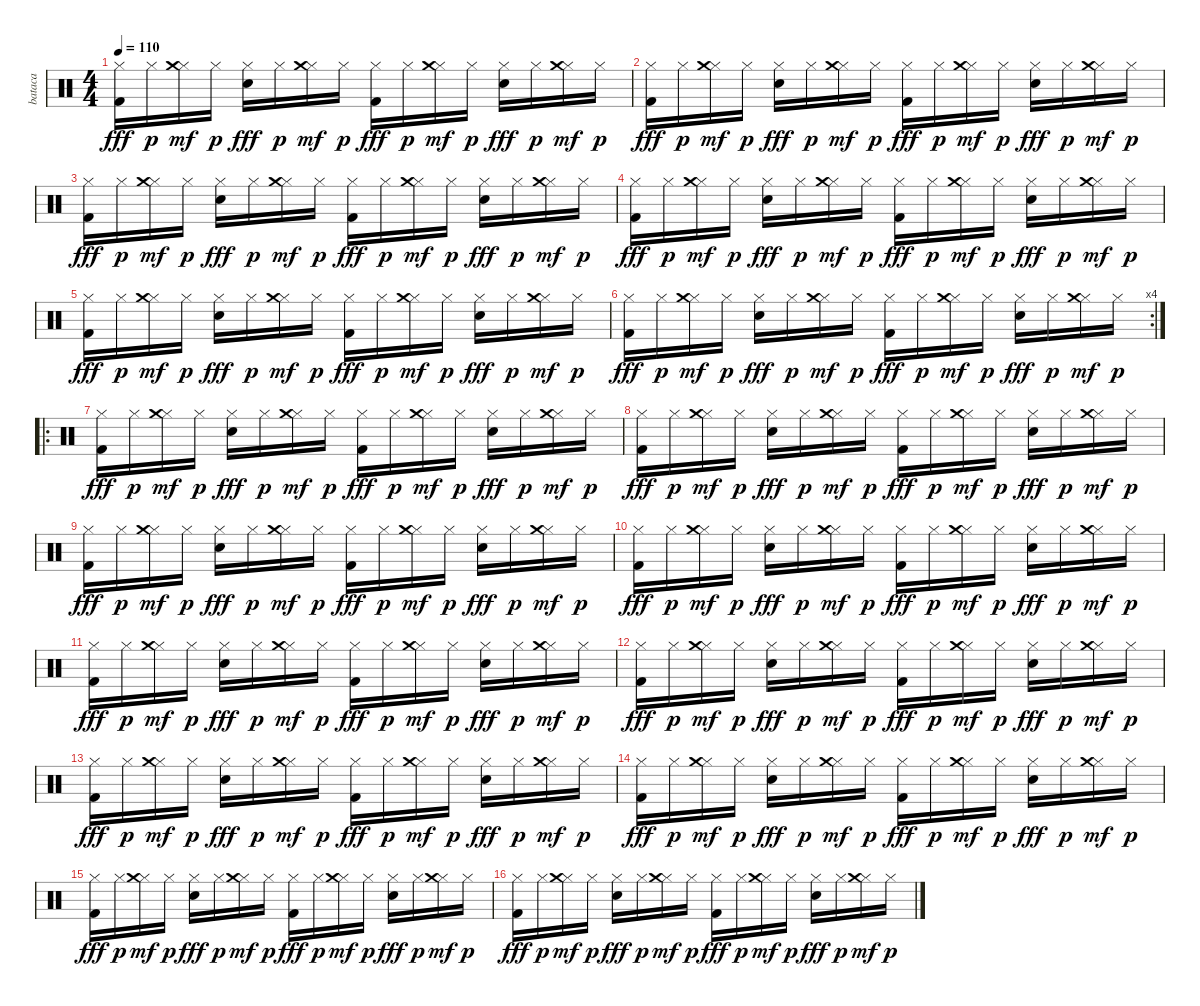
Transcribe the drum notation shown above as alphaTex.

\track ("bataca" "bataca") {instrument percussion}
\staff {score}
\articulation defaults
\ts (4 4)
\tempo 110
\clef neutral
\ks c
("Hi-Hat (closed)" "Kick (hit) 2").16{dy fff} "Hi-Hat (closed)".16{dy p} ("Hi-Hat (closed)" "Crash medium (hit)").16{dy mf} "Hi-Hat (closed)".16{dy p} ("Hi-Hat (closed)" "Electric Snare (hit)").16{dy fff} "Hi-Hat (closed)".16{dy p} ("Hi-Hat (closed)" "Crash medium (hit)").16{dy mf} "Hi-Hat (closed)".16{dy p} ("Hi-Hat (closed)" "Kick (hit) 2").16{dy fff} "Hi-Hat (closed)".16{dy p} ("Hi-Hat (closed)" "Crash medium (hit)").16{dy mf} "Hi-Hat (closed)".16{dy p} ("Hi-Hat (closed)" "Electric Snare (hit)").16{dy fff} "Hi-Hat (closed)".16{dy p} ("Hi-Hat (closed)" "Crash medium (hit)").16{dy mf} "Hi-Hat (closed)".16{dy p} |
("Hi-Hat (closed)" "Kick (hit) 2").16{dy fff} "Hi-Hat (closed)".16{dy p} ("Hi-Hat (closed)" "Crash medium (hit)").16{dy mf} "Hi-Hat (closed)".16{dy p} ("Hi-Hat (closed)" "Electric Snare (hit)").16{dy fff} "Hi-Hat (closed)".16{dy p} ("Hi-Hat (closed)" "Crash medium (hit)").16{dy mf} "Hi-Hat (closed)".16{dy p} ("Hi-Hat (closed)" "Kick (hit) 2").16{dy fff} "Hi-Hat (closed)".16{dy p} ("Hi-Hat (closed)" "Crash medium (hit)").16{dy mf} "Hi-Hat (closed)".16{dy p} ("Hi-Hat (closed)" "Electric Snare (hit)").16{dy fff} "Hi-Hat (closed)".16{dy p} ("Hi-Hat (closed)" "Crash medium (hit)").16{dy mf} "Hi-Hat (closed)".16{dy p} |
("Hi-Hat (closed)" "Kick (hit) 2").16{dy fff} "Hi-Hat (closed)".16{dy p} ("Hi-Hat (closed)" "Crash medium (hit)").16{dy mf} "Hi-Hat (closed)".16{dy p} ("Hi-Hat (closed)" "Electric Snare (hit)").16{dy fff} "Hi-Hat (closed)".16{dy p} ("Hi-Hat (closed)" "Crash medium (hit)").16{dy mf} "Hi-Hat (closed)".16{dy p} ("Hi-Hat (closed)" "Kick (hit) 2").16{dy fff} "Hi-Hat (closed)".16{dy p} ("Hi-Hat (closed)" "Crash medium (hit)").16{dy mf} "Hi-Hat (closed)".16{dy p} ("Hi-Hat (closed)" "Electric Snare (hit)").16{dy fff} "Hi-Hat (closed)".16{dy p} ("Hi-Hat (closed)" "Crash medium (hit)").16{dy mf} "Hi-Hat (closed)".16{dy p} |
("Hi-Hat (closed)" "Kick (hit) 2").16{dy fff} "Hi-Hat (closed)".16{dy p} ("Hi-Hat (closed)" "Crash medium (hit)").16{dy mf} "Hi-Hat (closed)".16{dy p} ("Hi-Hat (closed)" "Electric Snare (hit)").16{dy fff} "Hi-Hat (closed)".16{dy p} ("Hi-Hat (closed)" "Crash medium (hit)").16{dy mf} "Hi-Hat (closed)".16{dy p} ("Hi-Hat (closed)" "Kick (hit) 2").16{dy fff} "Hi-Hat (closed)".16{dy p} ("Hi-Hat (closed)" "Crash medium (hit)").16{dy mf} "Hi-Hat (closed)".16{dy p} ("Hi-Hat (closed)" "Electric Snare (hit)").16{dy fff} "Hi-Hat (closed)".16{dy p} ("Hi-Hat (closed)" "Crash medium (hit)").16{dy mf} "Hi-Hat (closed)".16{dy p} |
("Hi-Hat (closed)" "Kick (hit) 2").16{dy fff} "Hi-Hat (closed)".16{dy p} ("Hi-Hat (closed)" "Crash medium (hit)").16{dy mf} "Hi-Hat (closed)".16{dy p} ("Hi-Hat (closed)" "Electric Snare (hit)").16{dy fff} "Hi-Hat (closed)".16{dy p} ("Hi-Hat (closed)" "Crash medium (hit)").16{dy mf} "Hi-Hat (closed)".16{dy p} ("Hi-Hat (closed)" "Kick (hit) 2").16{dy fff} "Hi-Hat (closed)".16{dy p} ("Hi-Hat (closed)" "Crash medium (hit)").16{dy mf} "Hi-Hat (closed)".16{dy p} ("Hi-Hat (closed)" "Electric Snare (hit)").16{dy fff} "Hi-Hat (closed)".16{dy p} ("Hi-Hat (closed)" "Crash medium (hit)").16{dy mf} "Hi-Hat (closed)".16{dy p} |
\rc 4
("Hi-Hat (closed)" "Kick (hit) 2").16{dy fff} "Hi-Hat (closed)".16{dy p} ("Hi-Hat (closed)" "Crash medium (hit)").16{dy mf} "Hi-Hat (closed)".16{dy p} ("Hi-Hat (closed)" "Electric Snare (hit)").16{dy fff} "Hi-Hat (closed)".16{dy p} ("Hi-Hat (closed)" "Crash medium (hit)").16{dy mf} "Hi-Hat (closed)".16{dy p} ("Hi-Hat (closed)" "Kick (hit) 2").16{dy fff} "Hi-Hat (closed)".16{dy p} ("Hi-Hat (closed)" "Crash medium (hit)").16{dy mf} "Hi-Hat (closed)".16{dy p} ("Hi-Hat (closed)" "Electric Snare (hit)").16{dy fff} "Hi-Hat (closed)".16{dy p} ("Hi-Hat (closed)" "Crash medium (hit)").16{dy mf} "Hi-Hat (closed)".16{dy p} |
\ro
("Hi-Hat (closed)" "Kick (hit) 2").16{dy fff} "Hi-Hat (closed)".16{dy p} ("Hi-Hat (closed)" "Crash medium (hit)").16{dy mf} "Hi-Hat (closed)".16{dy p} ("Hi-Hat (closed)" "Electric Snare (hit)").16{dy fff} "Hi-Hat (closed)".16{dy p} ("Hi-Hat (closed)" "Crash medium (hit)").16{dy mf} "Hi-Hat (closed)".16{dy p} ("Hi-Hat (closed)" "Kick (hit) 2").16{dy fff} "Hi-Hat (closed)".16{dy p} ("Hi-Hat (closed)" "Crash medium (hit)").16{dy mf} "Hi-Hat (closed)".16{dy p} ("Hi-Hat (closed)" "Electric Snare (hit)").16{dy fff} "Hi-Hat (closed)".16{dy p} ("Hi-Hat (closed)" "Crash medium (hit)").16{dy mf} "Hi-Hat (closed)".16{dy p} |
("Hi-Hat (closed)" "Kick (hit) 2").16{dy fff} "Hi-Hat (closed)".16{dy p} ("Hi-Hat (closed)" "Crash medium (hit)").16{dy mf} "Hi-Hat (closed)".16{dy p} ("Hi-Hat (closed)" "Electric Snare (hit)").16{dy fff} "Hi-Hat (closed)".16{dy p} ("Hi-Hat (closed)" "Crash medium (hit)").16{dy mf} "Hi-Hat (closed)".16{dy p} ("Hi-Hat (closed)" "Kick (hit) 2").16{dy fff} "Hi-Hat (closed)".16{dy p} ("Hi-Hat (closed)" "Crash medium (hit)").16{dy mf} "Hi-Hat (closed)".16{dy p} ("Hi-Hat (closed)" "Electric Snare (hit)").16{dy fff} "Hi-Hat (closed)".16{dy p} ("Hi-Hat (closed)" "Crash medium (hit)").16{dy mf} "Hi-Hat (closed)".16{dy p} |
("Hi-Hat (closed)" "Kick (hit) 2").16{dy fff} "Hi-Hat (closed)".16{dy p} ("Hi-Hat (closed)" "Crash medium (hit)").16{dy mf} "Hi-Hat (closed)".16{dy p} ("Hi-Hat (closed)" "Electric Snare (hit)").16{dy fff} "Hi-Hat (closed)".16{dy p} ("Hi-Hat (closed)" "Crash medium (hit)").16{dy mf} "Hi-Hat (closed)".16{dy p} ("Hi-Hat (closed)" "Kick (hit) 2").16{dy fff} "Hi-Hat (closed)".16{dy p} ("Hi-Hat (closed)" "Crash medium (hit)").16{dy mf} "Hi-Hat (closed)".16{dy p} ("Hi-Hat (closed)" "Electric Snare (hit)").16{dy fff} "Hi-Hat (closed)".16{dy p} ("Hi-Hat (closed)" "Crash medium (hit)").16{dy mf} "Hi-Hat (closed)".16{dy p} |
("Hi-Hat (closed)" "Kick (hit) 2").16{dy fff} "Hi-Hat (closed)".16{dy p} ("Hi-Hat (closed)" "Crash medium (hit)").16{dy mf} "Hi-Hat (closed)".16{dy p} ("Hi-Hat (closed)" "Electric Snare (hit)").16{dy fff} "Hi-Hat (closed)".16{dy p} ("Hi-Hat (closed)" "Crash medium (hit)").16{dy mf} "Hi-Hat (closed)".16{dy p} ("Hi-Hat (closed)" "Kick (hit) 2").16{dy fff} "Hi-Hat (closed)".16{dy p} ("Hi-Hat (closed)" "Crash medium (hit)").16{dy mf} "Hi-Hat (closed)".16{dy p} ("Hi-Hat (closed)" "Electric Snare (hit)").16{dy fff} "Hi-Hat (closed)".16{dy p} ("Hi-Hat (closed)" "Crash medium (hit)").16{dy mf} "Hi-Hat (closed)".16{dy p} |
("Hi-Hat (closed)" "Kick (hit) 2").16{dy fff} "Hi-Hat (closed)".16{dy p} ("Hi-Hat (closed)" "Crash medium (hit)").16{dy mf} "Hi-Hat (closed)".16{dy p} ("Hi-Hat (closed)" "Electric Snare (hit)").16{dy fff} "Hi-Hat (closed)".16{dy p} ("Hi-Hat (closed)" "Crash medium (hit)").16{dy mf} "Hi-Hat (closed)".16{dy p} ("Hi-Hat (closed)" "Kick (hit) 2").16{dy fff} "Hi-Hat (closed)".16{dy p} ("Hi-Hat (closed)" "Crash medium (hit)").16{dy mf} "Hi-Hat (closed)".16{dy p} ("Hi-Hat (closed)" "Electric Snare (hit)").16{dy fff} "Hi-Hat (closed)".16{dy p} ("Hi-Hat (closed)" "Crash medium (hit)").16{dy mf} "Hi-Hat (closed)".16{dy p} |
("Hi-Hat (closed)" "Kick (hit) 2").16{dy fff} "Hi-Hat (closed)".16{dy p} ("Hi-Hat (closed)" "Crash medium (hit)").16{dy mf} "Hi-Hat (closed)".16{dy p} ("Hi-Hat (closed)" "Electric Snare (hit)").16{dy fff} "Hi-Hat (closed)".16{dy p} ("Hi-Hat (closed)" "Crash medium (hit)").16{dy mf} "Hi-Hat (closed)".16{dy p} ("Hi-Hat (closed)" "Kick (hit) 2").16{dy fff} "Hi-Hat (closed)".16{dy p} ("Hi-Hat (closed)" "Crash medium (hit)").16{dy mf} "Hi-Hat (closed)".16{dy p} ("Hi-Hat (closed)" "Electric Snare (hit)").16{dy fff} "Hi-Hat (closed)".16{dy p} ("Hi-Hat (closed)" "Crash medium (hit)").16{dy mf} "Hi-Hat (closed)".16{dy p} |
("Hi-Hat (closed)" "Kick (hit) 2").16{dy fff} "Hi-Hat (closed)".16{dy p} ("Hi-Hat (closed)" "Crash medium (hit)").16{dy mf} "Hi-Hat (closed)".16{dy p} ("Hi-Hat (closed)" "Electric Snare (hit)").16{dy fff} "Hi-Hat (closed)".16{dy p} ("Hi-Hat (closed)" "Crash medium (hit)").16{dy mf} "Hi-Hat (closed)".16{dy p} ("Hi-Hat (closed)" "Kick (hit) 2").16{dy fff} "Hi-Hat (closed)".16{dy p} ("Hi-Hat (closed)" "Crash medium (hit)").16{dy mf} "Hi-Hat (closed)".16{dy p} ("Hi-Hat (closed)" "Electric Snare (hit)").16{dy fff} "Hi-Hat (closed)".16{dy p} ("Hi-Hat (closed)" "Crash medium (hit)").16{dy mf} "Hi-Hat (closed)".16{dy p} |
("Hi-Hat (closed)" "Kick (hit) 2").16{dy fff} "Hi-Hat (closed)".16{dy p} ("Hi-Hat (closed)" "Crash medium (hit)").16{dy mf} "Hi-Hat (closed)".16{dy p} ("Hi-Hat (closed)" "Electric Snare (hit)").16{dy fff} "Hi-Hat (closed)".16{dy p} ("Hi-Hat (closed)" "Crash medium (hit)").16{dy mf} "Hi-Hat (closed)".16{dy p} ("Hi-Hat (closed)" "Kick (hit) 2").16{dy fff} "Hi-Hat (closed)".16{dy p} ("Hi-Hat (closed)" "Crash medium (hit)").16{dy mf} "Hi-Hat (closed)".16{dy p} ("Hi-Hat (closed)" "Electric Snare (hit)").16{dy fff} "Hi-Hat (closed)".16{dy p} ("Hi-Hat (closed)" "Crash medium (hit)").16{dy mf} "Hi-Hat (closed)".16{dy p} |
("Hi-Hat (closed)" "Kick (hit) 2").16{dy fff} "Hi-Hat (closed)".16{dy p} ("Hi-Hat (closed)" "Crash medium (hit)").16{dy mf} "Hi-Hat (closed)".16{dy p} ("Hi-Hat (closed)" "Electric Snare (hit)").16{dy fff} "Hi-Hat (closed)".16{dy p} ("Hi-Hat (closed)" "Crash medium (hit)").16{dy mf} "Hi-Hat (closed)".16{dy p} ("Hi-Hat (closed)" "Kick (hit) 2").16{dy fff} "Hi-Hat (closed)".16{dy p} ("Hi-Hat (closed)" "Crash medium (hit)").16{dy mf} "Hi-Hat (closed)".16{dy p} ("Hi-Hat (closed)" "Electric Snare (hit)").16{dy fff} "Hi-Hat (closed)".16{dy p} ("Hi-Hat (closed)" "Crash medium (hit)").16{dy mf} "Hi-Hat (closed)".16{dy p} |
("Hi-Hat (closed)" "Kick (hit) 2").16{dy fff} "Hi-Hat (closed)".16{dy p} ("Hi-Hat (closed)" "Crash medium (hit)").16{dy mf} "Hi-Hat (closed)".16{dy p} ("Hi-Hat (closed)" "Electric Snare (hit)").16{dy fff} "Hi-Hat (closed)".16{dy p} ("Hi-Hat (closed)" "Crash medium (hit)").16{dy mf} "Hi-Hat (closed)".16{dy p} ("Hi-Hat (closed)" "Kick (hit) 2").16{dy fff} "Hi-Hat (closed)".16{dy p} ("Hi-Hat (closed)" "Crash medium (hit)").16{dy mf} "Hi-Hat (closed)".16{dy p} ("Hi-Hat (closed)" "Electric Snare (hit)").16{dy fff} "Hi-Hat (closed)".16{dy p} ("Hi-Hat (closed)" "Crash medium (hit)").16{dy mf} "Hi-Hat (closed)".16{dy p}
